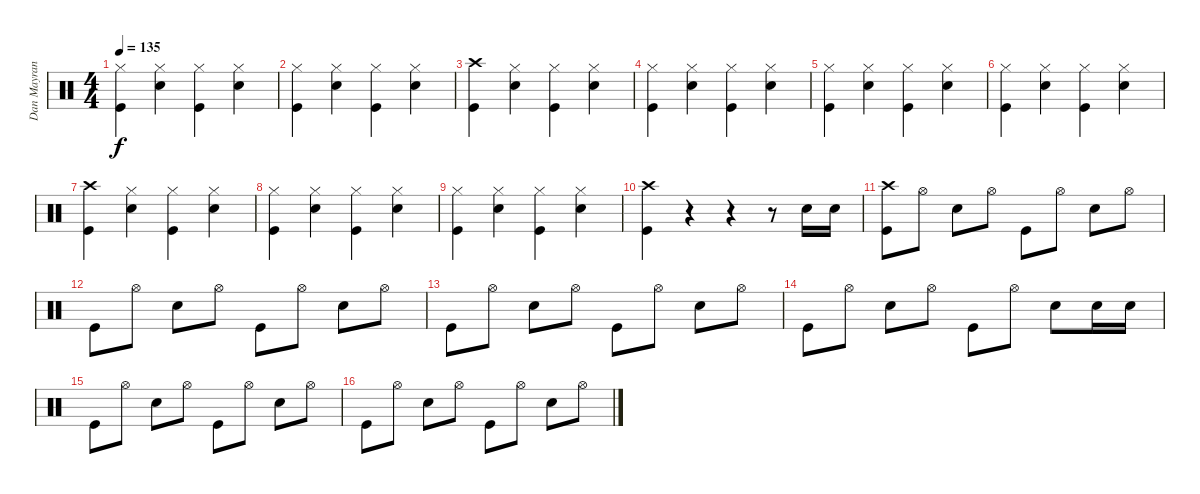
\track ("Dan Mayrand - Drum" "Dan Mayran") {instrument percussion}
\staff {score}
\articulation defaults
\ts (4 4)
\tempo 135
\clef neutral
\ks c
("Hi-Hat (closed)" "Kick (hit)").4{dy f} ("Hi-Hat (closed)" "Snare (hit) 2").4 ("Hi-Hat (closed)" "Kick (hit)").4 ("Hi-Hat (closed)" "Snare (hit) 2").4 |
("Hi-Hat (closed)" "Kick (hit)").4 ("Hi-Hat (closed)" "Snare (hit) 2").4 ("Hi-Hat (closed)" "Kick (hit)").4 ("Hi-Hat (closed)" "Snare (hit) 2").4 |
("Crash high (hit)" "Kick (hit)").4 ("Hi-Hat (closed)" "Snare (hit) 2").4 ("Hi-Hat (closed)" "Kick (hit)").4 ("Hi-Hat (closed)" "Snare (hit) 2").4 |
("Hi-Hat (closed)" "Kick (hit)").4 ("Hi-Hat (closed)" "Snare (hit) 2").4 ("Hi-Hat (closed)" "Kick (hit)").4 ("Hi-Hat (closed)" "Snare (hit) 2").4 |
("Hi-Hat (closed)" "Kick (hit)").4 ("Hi-Hat (closed)" "Snare (hit) 2").4 ("Hi-Hat (closed)" "Kick (hit)").4 ("Hi-Hat (closed)" "Snare (hit) 2").4 |
("Hi-Hat (closed)" "Kick (hit)").4 ("Hi-Hat (closed)" "Snare (hit) 2").4 ("Hi-Hat (closed)" "Kick (hit)").4 ("Hi-Hat (closed)" "Snare (hit) 2").4 |
("Crash high (hit)" "Kick (hit)").4 ("Hi-Hat (closed)" "Snare (hit) 2").4 ("Hi-Hat (closed)" "Kick (hit)").4 ("Hi-Hat (closed)" "Snare (hit) 2").4 |
("Hi-Hat (closed)" "Kick (hit)").4 ("Hi-Hat (closed)" "Snare (hit) 2").4 ("Hi-Hat (closed)" "Kick (hit)").4 ("Hi-Hat (closed)" "Snare (hit) 2").4 |
("Hi-Hat (closed)" "Kick (hit)").4 ("Hi-Hat (closed)" "Snare (hit) 2").4 ("Hi-Hat (closed)" "Kick (hit)").4 ("Hi-Hat (closed)" "Snare (hit) 2").4 |
("Crash high (hit)" "Kick (hit)").4 r.4 r.4 r.8 "Snare (hit) 2".16 "Snare (hit) 2".16 |
("Crash high (hit)" "Kick (hit)").8 "Hi-Hat (open)".8 "Snare (hit) 2".8 "Hi-Hat (open)".8 "Kick (hit)".8 "Hi-Hat (open)".8 "Snare (hit) 2".8 "Hi-Hat (open)".8 |
"Kick (hit)".8 "Hi-Hat (open)".8 "Snare (hit) 2".8 "Hi-Hat (open)".8 "Kick (hit)".8 "Hi-Hat (open)".8 "Snare (hit) 2".8 "Hi-Hat (open)".8 |
"Kick (hit)".8 "Hi-Hat (open)".8 "Snare (hit) 2".8 "Hi-Hat (open)".8 "Kick (hit)".8 "Hi-Hat (open)".8 "Snare (hit) 2".8 "Hi-Hat (open)".8 |
"Kick (hit)".8 "Hi-Hat (open)".8 "Snare (hit) 2".8 "Hi-Hat (open)".8 "Kick (hit)".8 "Hi-Hat (open)".8 "Snare (hit) 2".8 "Snare (hit) 2".16 "Snare (hit) 2".16 |
"Kick (hit)".8 "Hi-Hat (open)".8 "Snare (hit) 2".8 "Hi-Hat (open)".8 "Kick (hit)".8 "Hi-Hat (open)".8 "Snare (hit) 2".8 "Hi-Hat (open)".8 |
"Kick (hit)".8 "Hi-Hat (open)".8 "Snare (hit) 2".8 "Hi-Hat (open)".8 "Kick (hit)".8 "Hi-Hat (open)".8 "Snare (hit) 2".8 "Hi-Hat (open)".8
